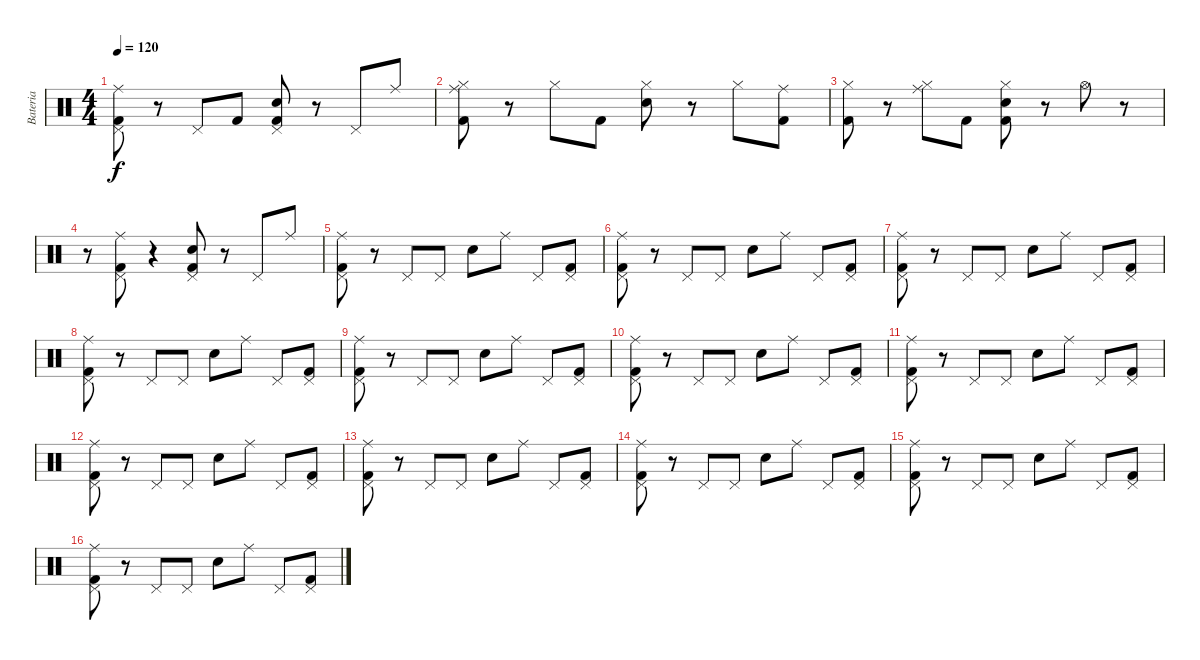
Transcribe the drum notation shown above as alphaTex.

\track ("Bateria" "Bateria") {instrument percussion}
\staff {score}
\articulation defaults
\ts (4 4)
\tempo 120
\clef neutral
\ks c
("Kick (hit) 2" "Pedal Hi-Hat (hit)" "Ride (middle)").8{dy f} r.8 "Pedal Hi-Hat (hit)".8 "Kick (hit) 2".8 ("Kick (hit) 2" "Pedal Hi-Hat (hit)" "Snare (hit) 2").8 r.8 "Pedal Hi-Hat (hit)".8 "Ride (middle)".8 |
("Kick (hit) 2" "Hi-Hat (closed)" "Ride (middle)").8 r.8 "Hi-Hat (closed)".8 "Kick (hit) 2".8 ("Hi-Hat (closed)" "Snare (hit) 2").8 r.8 "Hi-Hat (closed)".8 ("Kick (hit) 2" "Ride (middle)").8 |
("Kick (hit) 2" "Hi-Hat (closed)").8 r.8 ("Hi-Hat (closed)" "Ride (middle)").8 "Kick (hit) 2".8 ("Kick (hit) 2" "Hi-Hat (closed)" "Snare (hit) 2").8 r.8 "Hi-Hat (open)".8 r.8 |
r.8 ("Kick (hit) 2" "Pedal Hi-Hat (hit)" "Ride (middle)").8 r.4 ("Kick (hit) 2" "Pedal Hi-Hat (hit)" "Snare (hit) 2").8 r.8 "Pedal Hi-Hat (hit)".8 "Ride (middle)".8 |
("Kick (hit) 2" "Pedal Hi-Hat (hit)" "Ride (middle)").8 r.8 "Pedal Hi-Hat (hit)".8 "Pedal Hi-Hat (hit)".8 "Snare (hit) 2".8 "Ride (middle)".8 "Pedal Hi-Hat (hit)".8 ("Kick (hit) 2" "Pedal Hi-Hat (hit)").8 |
("Kick (hit) 2" "Pedal Hi-Hat (hit)" "Ride (middle)").8 r.8 "Pedal Hi-Hat (hit)".8 "Pedal Hi-Hat (hit)".8 "Snare (hit) 2".8 "Ride (middle)".8 "Pedal Hi-Hat (hit)".8 ("Kick (hit) 2" "Pedal Hi-Hat (hit)").8 |
("Kick (hit) 2" "Pedal Hi-Hat (hit)" "Ride (middle)").8 r.8 "Pedal Hi-Hat (hit)".8 "Pedal Hi-Hat (hit)".8 "Snare (hit) 2".8 "Ride (middle)".8 "Pedal Hi-Hat (hit)".8 ("Kick (hit) 2" "Pedal Hi-Hat (hit)").8 |
("Kick (hit) 2" "Pedal Hi-Hat (hit)" "Ride (middle)").8 r.8 "Pedal Hi-Hat (hit)".8 "Pedal Hi-Hat (hit)".8 "Snare (hit) 2".8 "Ride (middle)".8 "Pedal Hi-Hat (hit)".8 ("Kick (hit) 2" "Pedal Hi-Hat (hit)").8 |
("Kick (hit) 2" "Pedal Hi-Hat (hit)" "Ride (middle)").8 r.8 "Pedal Hi-Hat (hit)".8 "Pedal Hi-Hat (hit)".8 "Snare (hit) 2".8 "Ride (middle)".8 "Pedal Hi-Hat (hit)".8 ("Kick (hit) 2" "Pedal Hi-Hat (hit)").8 |
("Kick (hit) 2" "Pedal Hi-Hat (hit)" "Ride (middle)").8 r.8 "Pedal Hi-Hat (hit)".8 "Pedal Hi-Hat (hit)".8 "Snare (hit) 2".8 "Ride (middle)".8 "Pedal Hi-Hat (hit)".8 ("Kick (hit) 2" "Pedal Hi-Hat (hit)").8 |
("Kick (hit) 2" "Pedal Hi-Hat (hit)" "Ride (middle)").8 r.8 "Pedal Hi-Hat (hit)".8 "Pedal Hi-Hat (hit)".8 "Snare (hit) 2".8 "Ride (middle)".8 "Pedal Hi-Hat (hit)".8 ("Kick (hit) 2" "Pedal Hi-Hat (hit)").8 |
("Kick (hit) 2" "Pedal Hi-Hat (hit)" "Ride (middle)").8 r.8 "Pedal Hi-Hat (hit)".8 "Pedal Hi-Hat (hit)".8 "Snare (hit) 2".8 "Ride (middle)".8 "Pedal Hi-Hat (hit)".8 ("Kick (hit) 2" "Pedal Hi-Hat (hit)").8 |
("Kick (hit) 2" "Pedal Hi-Hat (hit)" "Ride (middle)").8 r.8 "Pedal Hi-Hat (hit)".8 "Pedal Hi-Hat (hit)".8 "Snare (hit) 2".8 "Ride (middle)".8 "Pedal Hi-Hat (hit)".8 ("Kick (hit) 2" "Pedal Hi-Hat (hit)").8 |
("Kick (hit) 2" "Pedal Hi-Hat (hit)" "Ride (middle)").8 r.8 "Pedal Hi-Hat (hit)".8 "Pedal Hi-Hat (hit)".8 "Snare (hit) 2".8 "Ride (middle)".8 "Pedal Hi-Hat (hit)".8 ("Kick (hit) 2" "Pedal Hi-Hat (hit)").8 |
("Kick (hit) 2" "Pedal Hi-Hat (hit)" "Ride (middle)").8 r.8 "Pedal Hi-Hat (hit)".8 "Pedal Hi-Hat (hit)".8 "Snare (hit) 2".8 "Ride (middle)".8 "Pedal Hi-Hat (hit)".8 ("Kick (hit) 2" "Pedal Hi-Hat (hit)").8 |
("Kick (hit) 2" "Pedal Hi-Hat (hit)" "Ride (middle)").8 r.8 "Pedal Hi-Hat (hit)".8 "Pedal Hi-Hat (hit)".8 "Snare (hit) 2".8 "Ride (middle)".8 "Pedal Hi-Hat (hit)".8 ("Kick (hit) 2" "Pedal Hi-Hat (hit)").8
